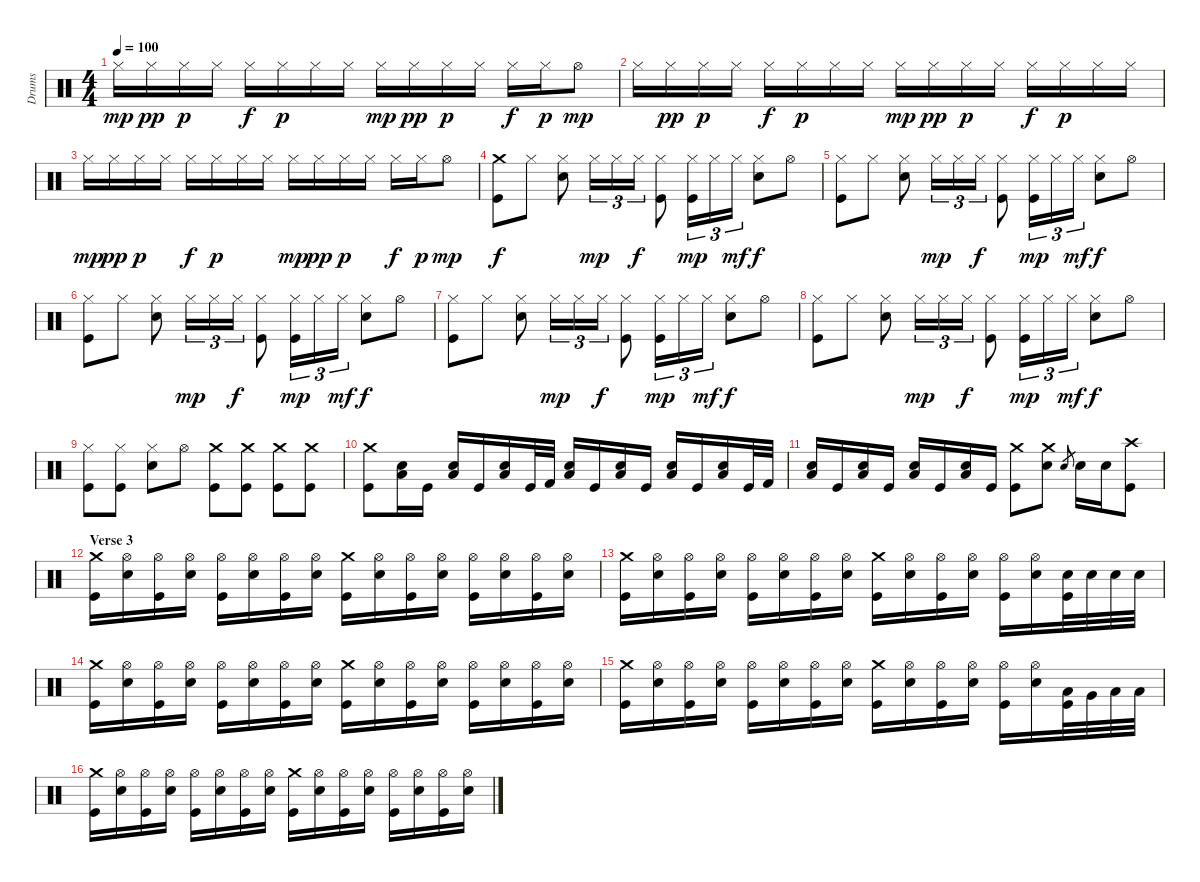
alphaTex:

\track ("Drums" "Drums") {instrument percussion}
\staff {score}
\articulation defaults
\ts (4 4)
\tempo 100
\clef neutral
\ks c "Hi-Hat (closed)".16{dy mp} "Hi-Hat (closed)".16{dy pp} "Hi-Hat (closed)".16{dy p} "Hi-Hat (closed)".16 "Hi-Hat (closed)".16{dy f} "Hi-Hat (closed)".16{dy p} "Hi-Hat (closed)".16 "Hi-Hat (closed)".16 "Hi-Hat (closed)".16{dy mp} "Hi-Hat (closed)".16{dy pp} "Hi-Hat (closed)".16{dy p} "Hi-Hat (closed)".16 "Hi-Hat (closed)".16{dy f} "Hi-Hat (closed)".16{dy p} "Hi-Hat (open)".8{dy mp}
|
"Hi-Hat (closed)".16 "Hi-Hat (closed)".16{dy pp} "Hi-Hat (closed)".16{dy p} "Hi-Hat (closed)".16 "Hi-Hat (closed)".16{dy f} "Hi-Hat (closed)".16{dy p} "Hi-Hat (closed)".16 "Hi-Hat (closed)".16 "Hi-Hat (closed)".16{dy mp} "Hi-Hat (closed)".16{dy pp} "Hi-Hat (closed)".16{dy p} "Hi-Hat (closed)".16 "Hi-Hat (closed)".16{dy f} "Hi-Hat (closed)".16{dy p} "Hi-Hat (closed)".16 "Hi-Hat (closed)".16 |
"Hi-Hat (closed)".16{dy mp} "Hi-Hat (closed)".16{dy pp} "Hi-Hat (closed)".16{dy p} "Hi-Hat (closed)".16 "Hi-Hat (closed)".16{dy f} "Hi-Hat (closed)".16{dy p} "Hi-Hat (closed)".16 "Hi-Hat (closed)".16 "Hi-Hat (closed)".16{dy mp} "Hi-Hat (closed)".16{dy pp} "Hi-Hat (closed)".16{dy p} "Hi-Hat (closed)".16 "Hi-Hat (closed)".16{dy f} "Hi-Hat (closed)".16{dy p} "Hi-Hat (open)".8{dy mp} |
("Crash medium (hit)" "Kick (hit)").8{dy f} "Hi-Hat (closed)".8 ("Hi-Hat (closed)" "Electric Snare (hit)").8 "Hi-Hat (closed)".16{tu (3 2) dy mp} "Hi-Hat (closed)".16{tu (3 2)} "Hi-Hat (closed)".16{tu (3 2) dy f} ("Hi-Hat (closed)" "Kick (hit)").8 ("Hi-Hat (closed)" "Kick (hit)").16{tu (3 2) dy mp} "Hi-Hat (closed)".16{tu (3 2)} "Hi-Hat (closed)".16{tu (3 2) dy mf} ("Hi-Hat (closed)" "Electric Snare (hit)").8{dy f} "Hi-Hat (open)".8 |
("Hi-Hat (closed)" "Kick (hit)").8 "Hi-Hat (closed)".8 ("Hi-Hat (closed)" "Electric Snare (hit)").8 "Hi-Hat (closed)".16{tu (3 2) dy mp} "Hi-Hat (closed)".16{tu (3 2)} "Hi-Hat (closed)".16{tu (3 2) dy f} ("Hi-Hat (closed)" "Kick (hit)").8 ("Hi-Hat (closed)" "Kick (hit)").16{tu (3 2) dy mp} "Hi-Hat (closed)".16{tu (3 2)} "Hi-Hat (closed)".16{tu (3 2) dy mf} ("Hi-Hat (closed)" "Electric Snare (hit)").8{dy f} "Hi-Hat (open)".8 |
("Hi-Hat (closed)" "Kick (hit)").8 "Hi-Hat (closed)".8 ("Hi-Hat (closed)" "Electric Snare (hit)").8 "Hi-Hat (closed)".16{tu (3 2) dy mp} "Hi-Hat (closed)".16{tu (3 2)} "Hi-Hat (closed)".16{tu (3 2) dy f} ("Hi-Hat (closed)" "Kick (hit)").8 ("Hi-Hat (closed)" "Kick (hit)").16{tu (3 2) dy mp} "Hi-Hat (closed)".16{tu (3 2)} "Hi-Hat (closed)".16{tu (3 2) dy mf} ("Hi-Hat (closed)" "Electric Snare (hit)").8{dy f} "Hi-Hat (open)".8 |
("Hi-Hat (closed)" "Kick (hit)").8 "Hi-Hat (closed)".8 ("Hi-Hat (closed)" "Electric Snare (hit)").8 "Hi-Hat (closed)".16{tu (3 2) dy mp} "Hi-Hat (closed)".16{tu (3 2)} "Hi-Hat (closed)".16{tu (3 2) dy f} ("Hi-Hat (closed)" "Kick (hit)").8 ("Hi-Hat (closed)" "Kick (hit)").16{tu (3 2) dy mp} "Hi-Hat (closed)".16{tu (3 2)} "Hi-Hat (closed)".16{tu (3 2) dy mf} ("Hi-Hat (closed)" "Electric Snare (hit)").8{dy f} "Hi-Hat (open)".8 |
("Hi-Hat (closed)" "Kick (hit)").8 "Hi-Hat (closed)".8 ("Hi-Hat (closed)" "Electric Snare (hit)").8 "Hi-Hat (closed)".16{tu (3 2) dy mp} "Hi-Hat (closed)".16{tu (3 2)} "Hi-Hat (closed)".16{tu (3 2) dy f} ("Hi-Hat (closed)" "Kick (hit)").8 ("Hi-Hat (closed)" "Kick (hit)").16{tu (3 2) dy mp} "Hi-Hat (closed)".16{tu (3 2)} "Hi-Hat (closed)".16{tu (3 2) dy mf} ("Hi-Hat (closed)" "Electric Snare (hit)").8{dy f} "Hi-Hat (open)".8 |
("Hi-Hat (closed)" "Kick (hit)").8 ("Hi-Hat (closed)" "Kick (hit)").8 ("Hi-Hat (closed)" "Electric Snare (hit)").8 "Hi-Hat (open)".8 ("Crash medium (hit)" "Kick (hit)").8 ("Crash medium (hit)" "Kick (hit)").8 ("Crash medium (hit)" "Kick (hit)").8 ("Crash medium (hit)" "Kick (hit)").8 |
("Crash medium (hit)" "Kick (hit)").8 ("Electric Snare (hit)" "Low Tom (hit)").16 "Kick (hit)".16 ("Electric Snare (hit)" "Low Tom (hit)").16 "Kick (hit)".16 ("Electric Snare (hit)" "Low Tom (hit)").16 "Kick (hit)".32 "Kick (hit) 2".32 ("Electric Snare (hit)" "Low Tom (hit)").16 "Kick (hit)".16 ("Electric Snare (hit)" "Low Tom (hit)").16 "Kick (hit)".16 ("Electric Snare (hit)" "Low Tom (hit)").16 "Kick (hit)".16 ("Electric Snare (hit)" "Low Tom (hit)").16 "Kick (hit)".32 "Kick (hit) 2".32 |
("Electric Snare (hit)" "Low Tom (hit)").16 "Kick (hit)".16 ("Electric Snare (hit)" "Low Tom (hit)").16 "Kick (hit)".16 ("Electric Snare (hit)" "Low Tom (hit)").16 "Kick (hit)".16 ("Electric Snare (hit)" "Low Tom (hit)").16 "Kick (hit)".16 ("Crash medium (hit)" "Kick (hit)").8 ("Crash medium (hit)" "Electric Snare (hit)").8 "Electric Snare (hit)".8{gr} "Electric Snare (hit)".16 "Electric Snare (hit)".16 ("Crash high (hit)" "Kick (hit)").8 |
\section ("" "Verse 3")
("Crash medium (hit)" "Kick (hit)").16 ("Hi-Hat (open)" "Electric Snare (hit)").16 ("Hi-Hat (open)" "Kick (hit)").16 ("Hi-Hat (open)" "Electric Snare (hit)").16 ("Hi-Hat (open)" "Kick (hit)").16 ("Hi-Hat (open)" "Electric Snare (hit)").16 ("Hi-Hat (open)" "Kick (hit)").16 ("Hi-Hat (open)" "Electric Snare (hit)").16 ("Crash medium (hit)" "Kick (hit)").16 ("Hi-Hat (open)" "Electric Snare (hit)").16 ("Hi-Hat (open)" "Kick (hit)").16 ("Hi-Hat (open)" "Electric Snare (hit)").16 ("Hi-Hat (open)" "Kick (hit)").16 ("Hi-Hat (open)" "Electric Snare (hit)").16 ("Hi-Hat (open)" "Kick (hit)").16 ("Hi-Hat (open)" "Electric Snare (hit)").16 |
("Crash medium (hit)" "Kick (hit)").16 ("Hi-Hat (open)" "Electric Snare (hit)").16 ("Hi-Hat (open)" "Kick (hit)").16 ("Hi-Hat (open)" "Electric Snare (hit)").16 ("Hi-Hat (open)" "Kick (hit)").16 ("Hi-Hat (open)" "Electric Snare (hit)").16 ("Hi-Hat (open)" "Kick (hit)").16 ("Hi-Hat (open)" "Electric Snare (hit)").16 ("Crash medium (hit)" "Kick (hit)").16 ("Hi-Hat (open)" "Electric Snare (hit)").16 ("Hi-Hat (open)" "Kick (hit)").16 ("Hi-Hat (open)" "Electric Snare (hit)").16 ("Hi-Hat (open)" "Kick (hit)").16 ("Hi-Hat (open)" "Electric Snare (hit)").16 ("Electric Snare (hit)" "Kick (hit)").32 "Electric Snare (hit)".32 "Electric Snare (hit)".32 "Electric Snare (hit)".32 |
("Crash medium (hit)" "Kick (hit)").16 ("Hi-Hat (open)" "Electric Snare (hit)").16 ("Hi-Hat (open)" "Kick (hit)").16 ("Hi-Hat (open)" "Electric Snare (hit)").16 ("Hi-Hat (open)" "Kick (hit)").16 ("Hi-Hat (open)" "Electric Snare (hit)").16 ("Hi-Hat (open)" "Kick (hit)").16 ("Hi-Hat (open)" "Electric Snare (hit)").16 ("Crash medium (hit)" "Kick (hit)").16 ("Hi-Hat (open)" "Electric Snare (hit)").16 ("Hi-Hat (open)" "Kick (hit)").16 ("Hi-Hat (open)" "Electric Snare (hit)").16 ("Hi-Hat (open)" "Kick (hit)").16 ("Hi-Hat (open)" "Electric Snare (hit)").16 ("Hi-Hat (open)" "Kick (hit)").16 ("Hi-Hat (open)" "Electric Snare (hit)").16 |
("Crash medium (hit)" "Kick (hit)").16 ("Hi-Hat (open)" "Electric Snare (hit)").16 ("Hi-Hat (open)" "Kick (hit)").16 ("Hi-Hat (open)" "Electric Snare (hit)").16 ("Hi-Hat (open)" "Kick (hit)").16 ("Hi-Hat (open)" "Electric Snare (hit)").16 ("Hi-Hat (open)" "Kick (hit)").16 ("Hi-Hat (open)" "Electric Snare (hit)").16 ("Crash medium (hit)" "Kick (hit)").16 ("Hi-Hat (open)" "Electric Snare (hit)").16 ("Hi-Hat (open)" "Kick (hit)").16 ("Hi-Hat (open)" "Electric Snare (hit)").16 ("Hi-Hat (open)" "Kick (hit)").16 ("Hi-Hat (open)" "Electric Snare (hit)").16 ("Low Tom (hit)" "Kick (hit)").32 "Very Low Tom (hit)".32 "Low Floor Tom (hit)".32 "Low Floor Tom (hit)".32 |
("Crash medium (hit)" "Kick (hit)").16 ("Hi-Hat (open)" "Electric Snare (hit)").16 ("Hi-Hat (open)" "Kick (hit)").16 ("Hi-Hat (open)" "Electric Snare (hit)").16 ("Hi-Hat (open)" "Kick (hit)").16 ("Hi-Hat (open)" "Electric Snare (hit)").16 ("Hi-Hat (open)" "Kick (hit)").16 ("Hi-Hat (open)" "Electric Snare (hit)").16 ("Crash medium (hit)" "Kick (hit)").16 ("Hi-Hat (open)" "Electric Snare (hit)").16 ("Hi-Hat (open)" "Kick (hit)").16 ("Hi-Hat (open)" "Electric Snare (hit)").16 ("Hi-Hat (open)" "Kick (hit)").16 ("Hi-Hat (open)" "Electric Snare (hit)").16 ("Hi-Hat (open)" "Kick (hit)").16 ("Hi-Hat (open)" "Electric Snare (hit)").16
